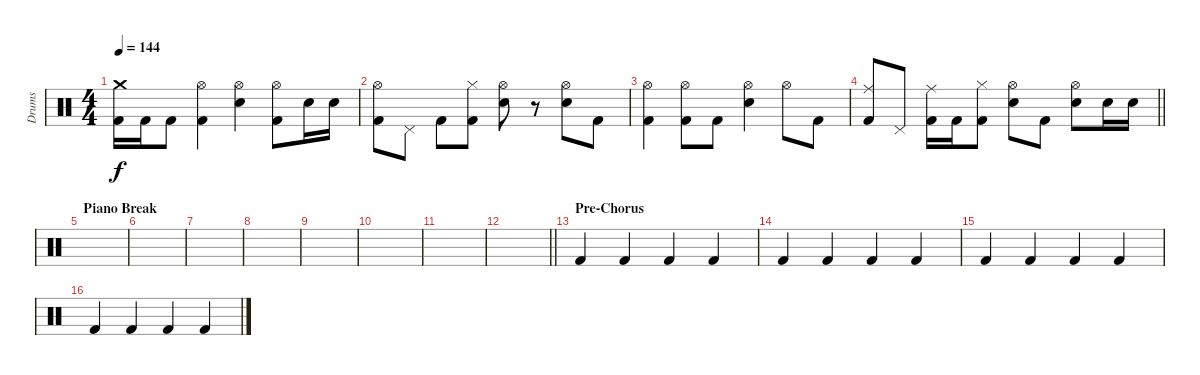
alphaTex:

\track ("Drums" "Drums") {instrument percussion}
\staff {score}
\articulation defaults
\ts (4 4)
\tempo 144
\clef neutral
\ks c
("Crash medium (hit)" "Kick (hit) 2").16{dy f} "Kick (hit) 2".16 "Kick (hit) 2".8 ("Hi-Hat (open)" "Kick (hit) 2").4 ("Hi-Hat (open)" "Electric Snare (hit)").4 ("Hi-Hat (open)" "Kick (hit) 2").8 "Electric Snare (hit)".16 "Electric Snare (hit)".16 |
("Hi-Hat (open)" "Kick (hit) 2").8 "Pedal Hi-Hat (hit)".8 "Kick (hit) 2".8 ("Hi-Hat (closed)" "Kick (hit) 2").8 ("Hi-Hat (open)" "Electric Snare (hit)").8 r.8 ("Hi-Hat (open)" "Electric Snare (hit)").8 "Kick (hit) 2".8 |
("Hi-Hat (open)" "Kick (hit) 2").4 ("Hi-Hat (open)" "Kick (hit) 2").8 "Kick (hit) 2".8 ("Hi-Hat (open)" "Electric Snare (hit)").4 "Hi-Hat (open)".8 "Kick (hit) 2".8 |
\barLineRight lightlight
("Ride (middle)" "Kick (hit) 2").8 "Pedal Hi-Hat (hit)".8 ("Ride (middle)" "Kick (hit) 2").16 "Kick (hit) 2".16 ("Hi-Hat (closed)" "Kick (hit) 2").8 ("Hi-Hat (open)" "Electric Snare (hit)").8 "Kick (hit) 2".8 ("Hi-Hat (open)" "Electric Snare (hit)").8 "Electric Snare (hit)".16 "Electric Snare (hit)".16 |
\section ("" "Piano Break")
|
|
|
|
|
|
|
\barLineRight lightlight
|
\section ("" "Pre-Chorus")
"Kick (hit) 2".4 "Kick (hit) 2".4 "Kick (hit) 2".4 "Kick (hit) 2".4 |
"Kick (hit) 2".4 "Kick (hit) 2".4 "Kick (hit) 2".4 "Kick (hit) 2".4 |
"Kick (hit) 2".4 "Kick (hit) 2".4 "Kick (hit) 2".4 "Kick (hit) 2".4 |
"Kick (hit) 2".4 "Kick (hit) 2".4 "Kick (hit) 2".4 "Kick (hit) 2".4
